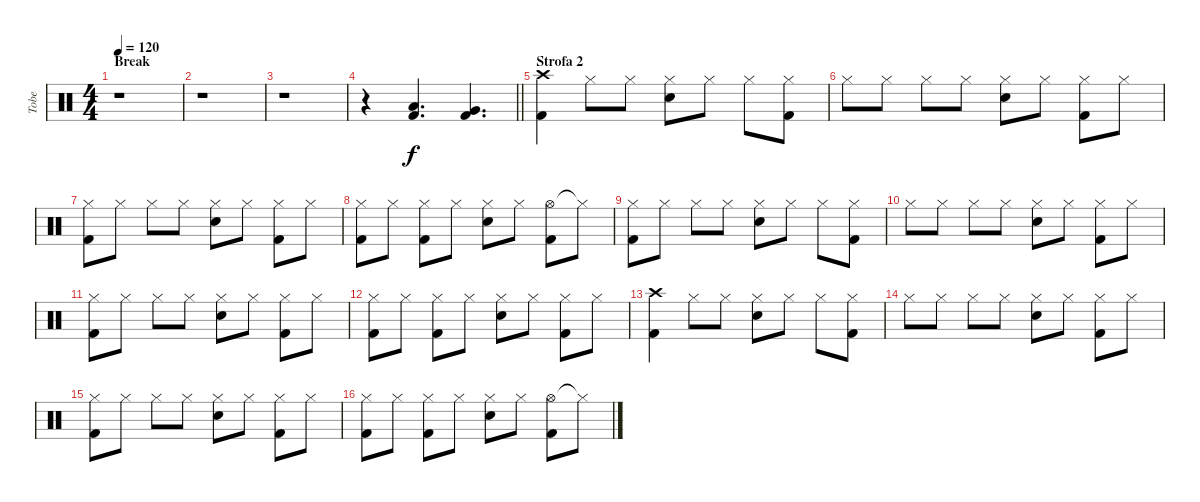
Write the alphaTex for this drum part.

\track ("Tobe" "Tobe") {instrument percussion}
\staff {score}
\articulation defaults
\ts (4 4)
\section ("" "Break")
\tempo 120
\clef neutral
\ks c
r.1{dy f} |
r.1 |
r.1 |
\barLineRight lightlight
r.4 ("Low Tom (hit)" "Kick (hit) 2").4{d} ("Very Low Tom (hit)" "Kick (hit) 2").4{d} |
\section ("" "Strofa 2")
("Crash high (hit)" "Kick (hit) 2").4 "Hi-Hat (closed)".8 "Hi-Hat (closed)".8 ("Hi-Hat (closed)" "Snare (hit) 2").8 "Hi-Hat (closed)".8 "Hi-Hat (closed)".8 ("Hi-Hat (closed)" "Kick (hit) 2").8 |
"Hi-Hat (closed)".8 "Hi-Hat (closed)".8 "Hi-Hat (closed)".8 "Hi-Hat (closed)".8 ("Hi-Hat (closed)" "Snare (hit) 2").8 "Hi-Hat (closed)".8 ("Hi-Hat (closed)" "Kick (hit) 2").8 "Hi-Hat (closed)".8 |
("Hi-Hat (closed)" "Kick (hit) 2").8 "Hi-Hat (closed)".8 "Hi-Hat (closed)".8 "Hi-Hat (closed)".8 ("Hi-Hat (closed)" "Snare (hit) 2").8 "Hi-Hat (closed)".8 ("Hi-Hat (closed)" "Kick (hit) 2").8 "Hi-Hat (closed)".8 |
("Hi-Hat (closed)" "Kick (hit) 2").8 "Hi-Hat (closed)".8 ("Hi-Hat (closed)" "Kick (hit) 2").8 "Hi-Hat (closed)".8 ("Hi-Hat (closed)" "Snare (hit) 2").8 "Hi-Hat (closed)".8 ("Hi-Hat (open)" "Kick (hit) 2").8 "Hi-Hat (closed)"{t}.8 |
("Hi-Hat (closed)" "Kick (hit) 2").8 "Hi-Hat (closed)".8 "Hi-Hat (closed)".8 "Hi-Hat (closed)".8 ("Hi-Hat (closed)" "Snare (hit) 2").8 "Hi-Hat (closed)".8 "Hi-Hat (closed)".8 ("Hi-Hat (closed)" "Kick (hit) 2").8 |
"Hi-Hat (closed)".8 "Hi-Hat (closed)".8 "Hi-Hat (closed)".8 "Hi-Hat (closed)".8 ("Hi-Hat (closed)" "Snare (hit) 2").8 "Hi-Hat (closed)".8 ("Hi-Hat (closed)" "Kick (hit) 2").8 "Hi-Hat (closed)".8 |
("Hi-Hat (closed)" "Kick (hit) 2").8 "Hi-Hat (closed)".8 "Hi-Hat (closed)".8 "Hi-Hat (closed)".8 ("Hi-Hat (closed)" "Snare (hit) 2").8 "Hi-Hat (closed)".8 ("Hi-Hat (closed)" "Kick (hit) 2").8 "Hi-Hat (closed)".8 |
("Hi-Hat (closed)" "Kick (hit) 2").8 "Hi-Hat (closed)".8 ("Hi-Hat (closed)" "Kick (hit) 2").8 "Hi-Hat (closed)".8 ("Hi-Hat (closed)" "Snare (hit) 2").8 "Hi-Hat (closed)".8 ("Hi-Hat (closed)" "Kick (hit) 2").8 "Hi-Hat (closed)".8 |
("Crash high (hit)" "Kick (hit) 2").4 "Hi-Hat (closed)".8 "Hi-Hat (closed)".8 ("Hi-Hat (closed)" "Snare (hit) 2").8 "Hi-Hat (closed)".8 "Hi-Hat (closed)".8 ("Hi-Hat (closed)" "Kick (hit) 2").8 |
"Hi-Hat (closed)".8 "Hi-Hat (closed)".8 "Hi-Hat (closed)".8 "Hi-Hat (closed)".8 ("Hi-Hat (closed)" "Snare (hit) 2").8 "Hi-Hat (closed)".8 ("Hi-Hat (closed)" "Kick (hit) 2").8 "Hi-Hat (closed)".8 |
("Hi-Hat (closed)" "Kick (hit) 2").8 "Hi-Hat (closed)".8 "Hi-Hat (closed)".8 "Hi-Hat (closed)".8 ("Hi-Hat (closed)" "Snare (hit) 2").8 "Hi-Hat (closed)".8 ("Hi-Hat (closed)" "Kick (hit) 2").8 "Hi-Hat (closed)".8 |
("Hi-Hat (closed)" "Kick (hit) 2").8 "Hi-Hat (closed)".8 ("Hi-Hat (closed)" "Kick (hit) 2").8 "Hi-Hat (closed)".8 ("Hi-Hat (closed)" "Snare (hit) 2").8 "Hi-Hat (closed)".8 ("Hi-Hat (open)" "Kick (hit) 2").8 "Hi-Hat (closed)"{t}.8
